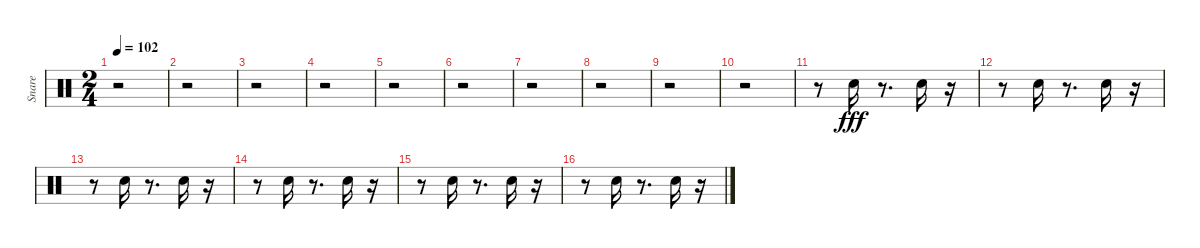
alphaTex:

\track ("Snare" "Snare") {instrument percussion}
\staff {score}
\articulation defaults
\ts (2 4)
\tempo 102
\clef neutral
\ks c
r.2{dy fff} |
r.2 |
r.2 |
r.2 |
r.2 |
r.2 |
r.2 |
r.2 |
r.2 |
r.2 |
r.8 "Electric Snare (hit)".16 r.8{d} "Electric Snare (hit)".16 r.16 |
r.8 "Electric Snare (hit)".16 r.8{d} "Electric Snare (hit)".16 r.16 |
r.8 "Electric Snare (hit)".16 r.8{d} "Electric Snare (hit)".16 r.16 |
r.8 "Electric Snare (hit)".16 r.8{d} "Electric Snare (hit)".16 r.16 |
r.8 "Electric Snare (hit)".16 r.8{d} "Electric Snare (hit)".16 r.16 |
r.8 "Electric Snare (hit)".16 r.8{d} "Electric Snare (hit)".16 r.16
